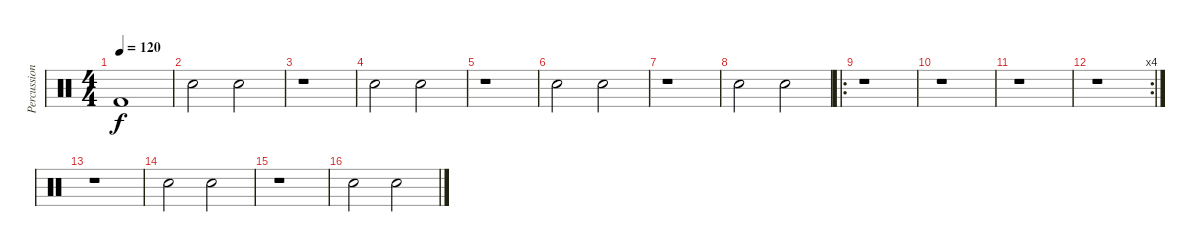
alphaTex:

\track ("Percussion" "Percussion") {instrument percussion}
\staff {score}
\articulation defaults
\ts (4 4)
\tempo 120
\clef neutral
\ks c "Kick (hit) 2".1{dy f}
|
"Snare (hit) 2".2 "Snare (hit) 2".2 |
r.1 |
"Snare (hit) 2".2 "Snare (hit) 2".2 |
r.1 |
"Snare (hit) 2".2 "Snare (hit) 2".2 |
r.1 |
"Snare (hit) 2".2 "Snare (hit) 2".2 |
\ro
r.1 |
r.1 |
r.1 |
\rc 4
r.1 |
r.1 |
"Snare (hit) 2".2 "Snare (hit) 2".2 |
r.1 |
"Snare (hit) 2".2 "Snare (hit) 2".2
